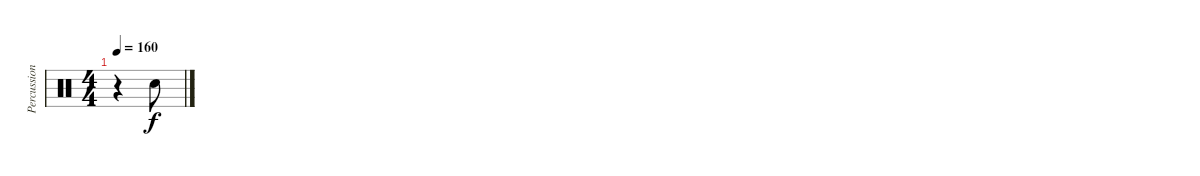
\track ("Percussioni" "Percussion") {instrument percussion}
\staff {score}
\articulation defaults
\ts (4 4)
\tempo 160
\clef neutral
\ks c
r.4{dy f} "Hand Clap (hit)".8
